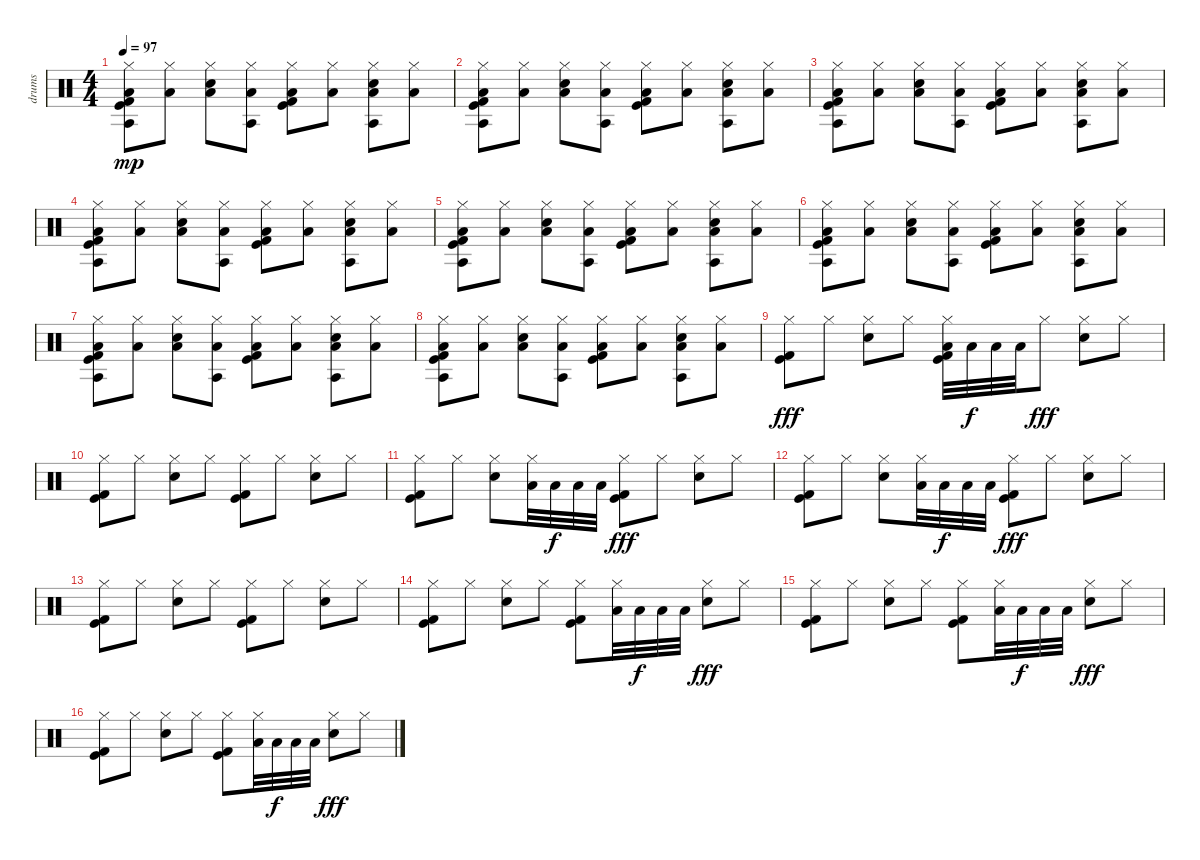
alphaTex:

\track ("drums" "drums") {instrument percussion}
\staff {score}
\articulation defaults
\ts (4 4)
\tempo 97
\clef neutral
\ks c
("Kick (hit)" "Kick (hit) 2" "Hi-Hat (closed)" "Agogo tow (hit)" "Low Floor Tom (hit)").8{dy mp} ("Hi-Hat (closed)" "Low Floor Tom (hit)").8 ("Hi-Hat (closed)" "Electric Snare (hit)" "Low Floor Tom (hit)").8 ("Hi-Hat (closed)" "Agogo tow (hit)" "Low Floor Tom (hit)").8 ("Kick (hit)" "Kick (hit) 2" "Hi-Hat (closed)" "Low Floor Tom (hit)").8 ("Hi-Hat (closed)" "Low Floor Tom (hit)").8 ("Hi-Hat (closed)" "Agogo tow (hit)" "Electric Snare (hit)" "Low Floor Tom (hit)").8 ("Hi-Hat (closed)" "Low Floor Tom (hit)").8 |
("Kick (hit)" "Kick (hit) 2" "Hi-Hat (closed)" "Agogo tow (hit)" "Low Floor Tom (hit)").8 ("Hi-Hat (closed)" "Low Floor Tom (hit)").8 ("Hi-Hat (closed)" "Electric Snare (hit)" "Low Floor Tom (hit)").8 ("Hi-Hat (closed)" "Agogo tow (hit)" "Low Floor Tom (hit)").8 ("Kick (hit)" "Kick (hit) 2" "Hi-Hat (closed)" "Low Floor Tom (hit)").8 ("Hi-Hat (closed)" "Low Floor Tom (hit)").8 ("Hi-Hat (closed)" "Agogo tow (hit)" "Electric Snare (hit)" "Low Floor Tom (hit)").8 ("Hi-Hat (closed)" "Low Floor Tom (hit)").8 |
("Kick (hit)" "Kick (hit) 2" "Agogo tow (hit)" "Hi-Hat (closed)" "Low Floor Tom (hit)").8 ("Hi-Hat (closed)" "Low Floor Tom (hit)").8 ("Hi-Hat (closed)" "Electric Snare (hit)" "Low Floor Tom (hit)").8 ("Agogo tow (hit)" "Hi-Hat (closed)" "Low Floor Tom (hit)").8 ("Kick (hit)" "Kick (hit) 2" "Hi-Hat (closed)" "Low Floor Tom (hit)").8 ("Hi-Hat (closed)" "Low Floor Tom (hit)").8 ("Agogo tow (hit)" "Hi-Hat (closed)" "Electric Snare (hit)" "Low Floor Tom (hit)").8 ("Hi-Hat (closed)" "Low Floor Tom (hit)").8 |
("Kick (hit)" "Kick (hit) 2" "Hi-Hat (closed)" "Agogo tow (hit)" "Low Floor Tom (hit)").8 ("Hi-Hat (closed)" "Low Floor Tom (hit)").8 ("Hi-Hat (closed)" "Electric Snare (hit)" "Low Floor Tom (hit)").8 ("Hi-Hat (closed)" "Agogo tow (hit)" "Low Floor Tom (hit)").8 ("Kick (hit)" "Kick (hit) 2" "Hi-Hat (closed)" "Low Floor Tom (hit)").8 ("Hi-Hat (closed)" "Low Floor Tom (hit)").8 ("Hi-Hat (closed)" "Agogo tow (hit)" "Electric Snare (hit)" "Low Floor Tom (hit)").8 ("Hi-Hat (closed)" "Low Floor Tom (hit)").8 |
("Kick (hit)" "Kick (hit) 2" "Agogo tow (hit)" "Hi-Hat (closed)" "Low Floor Tom (hit)").8 ("Hi-Hat (closed)" "Low Floor Tom (hit)").8 ("Hi-Hat (closed)" "Electric Snare (hit)" "Low Floor Tom (hit)").8 ("Agogo tow (hit)" "Hi-Hat (closed)" "Low Floor Tom (hit)").8 ("Kick (hit)" "Kick (hit) 2" "Hi-Hat (closed)" "Low Floor Tom (hit)").8 ("Hi-Hat (closed)" "Low Floor Tom (hit)").8 ("Agogo tow (hit)" "Hi-Hat (closed)" "Electric Snare (hit)" "Low Floor Tom (hit)").8 ("Hi-Hat (closed)" "Low Floor Tom (hit)").8 |
("Kick (hit)" "Kick (hit) 2" "Agogo tow (hit)" "Hi-Hat (closed)" "Low Floor Tom (hit)").8 ("Hi-Hat (closed)" "Low Floor Tom (hit)").8 ("Hi-Hat (closed)" "Electric Snare (hit)" "Low Floor Tom (hit)").8 ("Agogo tow (hit)" "Hi-Hat (closed)" "Low Floor Tom (hit)").8 ("Kick (hit)" "Kick (hit) 2" "Hi-Hat (closed)" "Low Floor Tom (hit)").8 ("Hi-Hat (closed)" "Low Floor Tom (hit)").8 ("Agogo tow (hit)" "Hi-Hat (closed)" "Electric Snare (hit)" "Low Floor Tom (hit)").8 ("Hi-Hat (closed)" "Low Floor Tom (hit)").8 |
("Kick (hit)" "Kick (hit) 2" "Agogo tow (hit)" "Hi-Hat (closed)" "Low Floor Tom (hit)").8 ("Hi-Hat (closed)" "Low Floor Tom (hit)").8 ("Hi-Hat (closed)" "Electric Snare (hit)" "Low Floor Tom (hit)").8 ("Agogo tow (hit)" "Hi-Hat (closed)" "Low Floor Tom (hit)").8 ("Kick (hit)" "Kick (hit) 2" "Hi-Hat (closed)" "Low Floor Tom (hit)").8 ("Hi-Hat (closed)" "Low Floor Tom (hit)").8 ("Agogo tow (hit)" "Hi-Hat (closed)" "Electric Snare (hit)" "Low Floor Tom (hit)").8 ("Hi-Hat (closed)" "Low Floor Tom (hit)").8 |
("Kick (hit)" "Kick (hit) 2" "Hi-Hat (closed)" "Agogo tow (hit)" "Low Floor Tom (hit)").8 ("Hi-Hat (closed)" "Low Floor Tom (hit)").8 ("Hi-Hat (closed)" "Electric Snare (hit)" "Low Floor Tom (hit)").8 ("Hi-Hat (closed)" "Agogo tow (hit)" "Low Floor Tom (hit)").8 ("Kick (hit)" "Kick (hit) 2" "Hi-Hat (closed)" "Low Floor Tom (hit)").8 ("Hi-Hat (closed)" "Low Floor Tom (hit)").8 ("Hi-Hat (closed)" "Agogo tow (hit)" "Electric Snare (hit)" "Low Floor Tom (hit)").8 ("Hi-Hat (closed)" "Low Floor Tom (hit)").8 |
("Kick (hit)" "Kick (hit) 2" "Hi-Hat (closed)").8{dy fff} "Hi-Hat (closed)".8 ("Hi-Hat (closed)" "Electric Snare (hit)").8 "Hi-Hat (closed)".8 ("Kick (hit)" "Kick (hit) 2" "Hi-Hat (closed)" "Low Floor Tom (hit)").32 "Low Floor Tom (hit)".32{dy f} "Low Floor Tom (hit)".32 "Low Floor Tom (hit)".32 "Hi-Hat (closed)".8{dy fff} ("Hi-Hat (closed)" "Electric Snare (hit)").8 "Hi-Hat (closed)".8 |
("Kick (hit)" "Kick (hit) 2" "Hi-Hat (closed)").8 "Hi-Hat (closed)".8 ("Hi-Hat (closed)" "Electric Snare (hit)").8 "Hi-Hat (closed)".8 ("Kick (hit)" "Kick (hit) 2" "Hi-Hat (closed)").8 "Hi-Hat (closed)".8 ("Hi-Hat (closed)" "Electric Snare (hit)").8 "Hi-Hat (closed)".8 |
("Kick (hit)" "Kick (hit) 2" "Hi-Hat (closed)").8 "Hi-Hat (closed)".8 ("Hi-Hat (closed)" "Electric Snare (hit)").8 ("Low Floor Tom (hit)" "Hi-Hat (closed)").32 "Low Floor Tom (hit)".32{dy f} "Low Floor Tom (hit)".32 "Low Floor Tom (hit)".32 ("Kick (hit)" "Kick (hit) 2" "Hi-Hat (closed)").8{dy fff} "Hi-Hat (closed)".8 ("Hi-Hat (closed)" "Electric Snare (hit)").8 "Hi-Hat (closed)".8 |
("Kick (hit)" "Kick (hit) 2" "Hi-Hat (closed)").8 "Hi-Hat (closed)".8 ("Hi-Hat (closed)" "Electric Snare (hit)").8 ("Hi-Hat (closed)" "Low Floor Tom (hit)").32 "Low Floor Tom (hit)".32{dy f} "Low Floor Tom (hit)".32 "Low Floor Tom (hit)".32 ("Kick (hit)" "Kick (hit) 2" "Hi-Hat (closed)").8{dy fff} "Hi-Hat (closed)".8 ("Hi-Hat (closed)" "Electric Snare (hit)").8 "Hi-Hat (closed)".8 |
("Kick (hit)" "Kick (hit) 2" "Hi-Hat (closed)").8 "Hi-Hat (closed)".8 ("Hi-Hat (closed)" "Electric Snare (hit)").8 "Hi-Hat (closed)".8 ("Kick (hit)" "Kick (hit) 2" "Hi-Hat (closed)").8 "Hi-Hat (closed)".8 ("Hi-Hat (closed)" "Electric Snare (hit)").8 "Hi-Hat (closed)".8 |
("Kick (hit)" "Kick (hit) 2" "Hi-Hat (closed)").8 "Hi-Hat (closed)".8 ("Hi-Hat (closed)" "Electric Snare (hit)").8 "Hi-Hat (closed)".8 ("Kick (hit)" "Kick (hit) 2" "Hi-Hat (closed)").8 ("Hi-Hat (closed)" "Low Floor Tom (hit)").32 "Low Floor Tom (hit)".32{dy f} "Low Floor Tom (hit)".32 "Low Floor Tom (hit)".32 ("Hi-Hat (closed)" "Electric Snare (hit)").8{dy fff} "Hi-Hat (closed)".8 |
("Kick (hit)" "Kick (hit) 2" "Hi-Hat (closed)").8 "Hi-Hat (closed)".8 ("Hi-Hat (closed)" "Electric Snare (hit)").8 "Hi-Hat (closed)".8 ("Kick (hit)" "Kick (hit) 2" "Hi-Hat (closed)").8 ("Hi-Hat (closed)" "Low Floor Tom (hit)").32 "Low Floor Tom (hit)".32{dy f} "Low Floor Tom (hit)".32 "Low Floor Tom (hit)".32 ("Hi-Hat (closed)" "Electric Snare (hit)").8{dy fff} "Hi-Hat (closed)".8 |
("Kick (hit)" "Kick (hit) 2" "Hi-Hat (closed)").8 "Hi-Hat (closed)".8 ("Hi-Hat (closed)" "Electric Snare (hit)").8 "Hi-Hat (closed)".8 ("Kick (hit)" "Kick (hit) 2" "Hi-Hat (closed)").8 ("Hi-Hat (closed)" "Low Floor Tom (hit)").32 "Low Floor Tom (hit)".32{dy f} "Low Floor Tom (hit)".32 "Low Floor Tom (hit)".32 ("Hi-Hat (closed)" "Electric Snare (hit)").8{dy fff} "Hi-Hat (closed)".8
